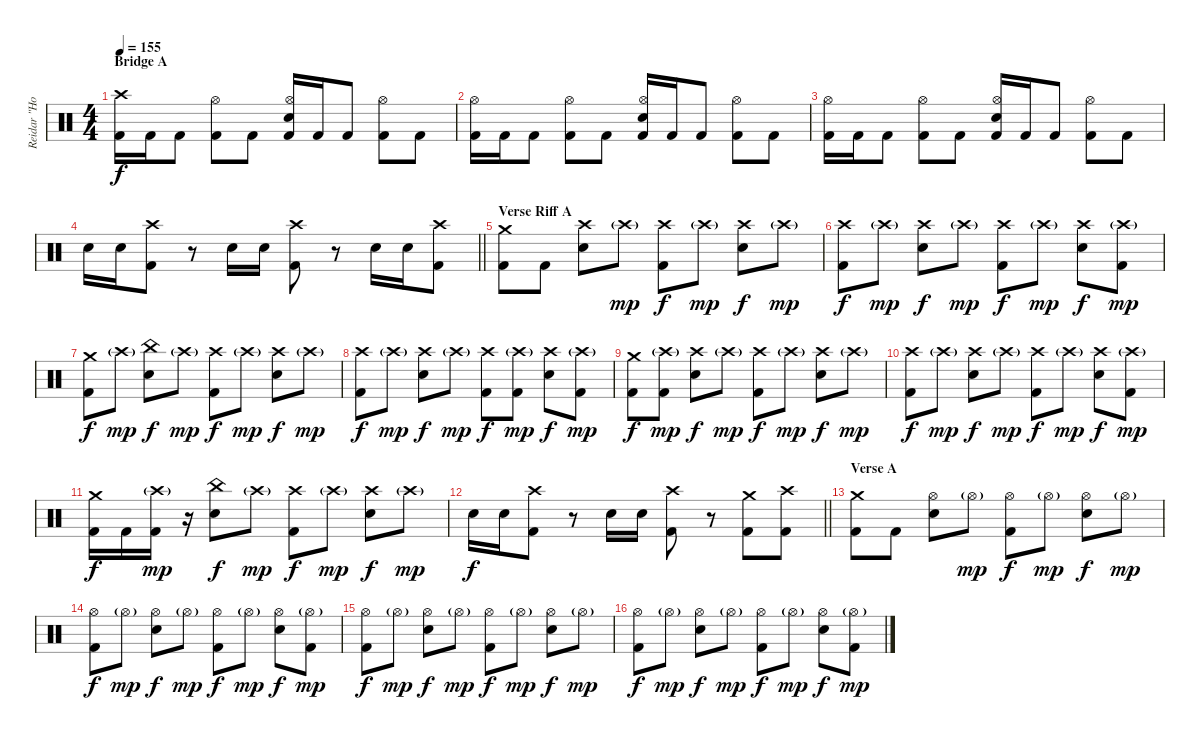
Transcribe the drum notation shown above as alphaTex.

\track ("Reidar \"Horgh\" Horghagen " "Reidar \"Ho") {instrument percussion}
\staff {score}
\articulation defaults
\ts (4 4)
\section ("" "Bridge A")
\tempo 155
\clef neutral
\ks c
("Crash high (hit)" "Kick (hit) 2").16{dy f} "Kick (hit) 2".16 "Kick (hit) 2".8 ("Hi-Hat (open)" "Kick (hit) 2").8 "Kick (hit) 2".8 ("Hi-Hat (open)" "Snare (hit) 2" "Kick (hit) 2").16 "Kick (hit) 2".16 "Kick (hit) 2".8 ("Hi-Hat (open)" "Kick (hit) 2").8 "Kick (hit) 2".8 |
("Hi-Hat (open)" "Kick (hit) 2").16 "Kick (hit) 2".16 "Kick (hit) 2".8 ("Hi-Hat (open)" "Kick (hit) 2").8 "Kick (hit) 2".8 ("Hi-Hat (open)" "Snare (hit) 2" "Kick (hit) 2").16 "Kick (hit) 2".16 "Kick (hit) 2".8 ("Hi-Hat (open)" "Kick (hit) 2").8 "Kick (hit) 2".8 |
("Hi-Hat (open)" "Kick (hit) 2").16 "Kick (hit) 2".16 "Kick (hit) 2".8 ("Hi-Hat (open)" "Kick (hit) 2").8 "Kick (hit) 2".8 ("Hi-Hat (open)" "Snare (hit) 2" "Kick (hit) 2").16 "Kick (hit) 2".16 "Kick (hit) 2".8 ("Hi-Hat (open)" "Kick (hit) 2").8 "Kick (hit) 2".8 |
\barLineRight lightlight "Snare (hit) 2".16 "Snare (hit) 2".16
("Crash high (hit)" "Kick (hit) 2").8 r.8 "Snare (hit) 2".16 "Snare (hit) 2".16 ("Crash high (hit)" "Kick (hit) 2").8 r.8 "Snare (hit) 2".16 "Snare (hit) 2".16 ("Crash high (hit)" "Kick (hit) 2").8 |
\section ("" "Verse Riff A")
("Crash medium (hit)" "Kick (hit) 2").8 "Kick (hit) 2".8 ("Crash high (hit)" "Snare (hit) 2").8 "Crash high (hit)"{g}.8{dy mp} ("Crash high (hit)" "Kick (hit) 2").8{dy f} "Crash high (hit)"{g}.8{dy mp} ("Crash high (hit)" "Snare (hit) 2").8{dy f} "Crash high (hit)"{g}.8{dy mp} |
("Crash high (hit)" "Kick (hit) 2").8{dy f} "Crash high (hit)"{g}.8{dy mp} ("Crash high (hit)" "Snare (hit) 2").8{dy f} "Crash high (hit)"{g}.8{dy mp} ("Crash high (hit)" "Kick (hit) 2").8{dy f} "Crash high (hit)"{g}.8{dy mp} ("Crash high (hit)" "Snare (hit) 2").8{dy f} ("Crash high (hit)"{g} "Kick (hit) 2").8{dy mp} |
("Crash medium (hit)" "Kick (hit) 2").8{dy f} "Crash high (hit)"{g}.8{dy mp} ("China (hit)" "Snare (hit) 2").8{dy f} "Crash high (hit)"{g}.8{dy mp} ("Crash high (hit)" "Kick (hit) 2").8{dy f} "Crash high (hit)"{g}.8{dy mp} ("Crash high (hit)" "Snare (hit) 2").8{dy f} "Crash high (hit)"{g}.8{dy mp} |
("Crash high (hit)" "Kick (hit) 2").8{dy f} "Crash high (hit)"{g}.8{dy mp} ("Crash high (hit)" "Snare (hit) 2").8{dy f} "Crash high (hit)"{g}.8{dy mp} ("Crash high (hit)" "Kick (hit) 2").8{dy f} ("Crash high (hit)"{g} "Kick (hit) 2").8{dy mp} ("Crash high (hit)" "Snare (hit) 2").8{dy f} ("Crash high (hit)"{g} "Kick (hit) 2").8{dy mp} |
("Crash medium (hit)" "Kick (hit) 2").8{dy f} ("Crash high (hit)"{g} "Kick (hit) 2").8{dy mp} ("Crash high (hit)" "Snare (hit) 2").8{dy f} "Crash high (hit)"{g}.8{dy mp} ("Crash high (hit)" "Kick (hit) 2").8{dy f} "Crash high (hit)"{g}.8{dy mp} ("Crash high (hit)" "Snare (hit) 2").8{dy f} "Crash high (hit)"{g}.8{dy mp} |
("Crash high (hit)" "Kick (hit) 2").8{dy f} "Crash high (hit)"{g}.8{dy mp} ("Crash high (hit)" "Snare (hit) 2").8{dy f} "Crash high (hit)"{g}.8{dy mp} ("Crash high (hit)" "Kick (hit) 2").8{dy f} "Crash high (hit)"{g}.8{dy mp} ("Crash high (hit)" "Snare (hit) 2").8{dy f} ("Crash high (hit)"{g} "Kick (hit) 2").8{dy mp} |
("Crash medium (hit)" "Kick (hit) 2").16{dy f} "Kick (hit) 2".16 ("Crash high (hit)"{g} "Kick (hit) 2").16{dy mp} r.16 ("China (hit)" "Snare (hit) 2").8{dy f} "Crash high (hit)"{g}.8{dy mp} ("Crash high (hit)" "Kick (hit) 2").8{dy f} "Crash high (hit)"{g}.8{dy mp} ("Crash high (hit)" "Snare (hit) 2").8{dy f} "Crash high (hit)"{g}.8{dy mp} |
\barLineRight lightlight "Snare (hit) 2".16{dy f} "Snare (hit) 2".16
("Crash high (hit)" "Kick (hit) 2").8 r.8 "Snare (hit) 2".16 "Snare (hit) 2".16 ("Crash high (hit)" "Kick (hit) 2").8 r.8 ("Crash medium (hit)" "Kick (hit) 2").8 ("Crash high (hit)" "Kick (hit) 2").8 |
\section ("" "Verse A")
("Crash medium (hit)" "Kick (hit) 2").8 "Kick (hit) 2".8 ("Hi-Hat (open)" "Snare (hit) 2").8 "Hi-Hat (open)"{g}.8{dy mp} ("Hi-Hat (open)" "Kick (hit) 2").8{dy f} "Hi-Hat (open)"{g}.8{dy mp} ("Hi-Hat (open)" "Snare (hit) 2").8{dy f} "Hi-Hat (open)"{g}.8{dy mp} |
("Hi-Hat (open)" "Kick (hit) 2").8{dy f} "Hi-Hat (open)"{g}.8{dy mp} ("Hi-Hat (open)" "Snare (hit) 2").8{dy f} "Hi-Hat (open)"{g}.8{dy mp} ("Hi-Hat (open)" "Kick (hit) 2").8{dy f} "Hi-Hat (open)"{g}.8{dy mp} ("Hi-Hat (open)" "Snare (hit) 2").8{dy f} ("Hi-Hat (open)"{g} "Kick (hit) 2").8{dy mp} |
("Hi-Hat (open)" "Kick (hit) 2").8{dy f} "Hi-Hat (open)"{g}.8{dy mp} ("Hi-Hat (open)" "Snare (hit) 2").8{dy f} "Hi-Hat (open)"{g}.8{dy mp} ("Hi-Hat (open)" "Kick (hit) 2").8{dy f} "Hi-Hat (open)"{g}.8{dy mp} ("Hi-Hat (open)" "Snare (hit) 2").8{dy f} "Hi-Hat (open)"{g}.8{dy mp} |
("Hi-Hat (open)" "Kick (hit) 2").8{dy f} "Hi-Hat (open)"{g}.8{dy mp} ("Hi-Hat (open)" "Snare (hit) 2").8{dy f} "Hi-Hat (open)"{g}.8{dy mp} ("Hi-Hat (open)" "Kick (hit) 2").8{dy f} "Hi-Hat (open)"{g}.8{dy mp} ("Hi-Hat (open)" "Snare (hit) 2").8{dy f} ("Hi-Hat (open)"{g} "Kick (hit) 2").8{dy mp}
